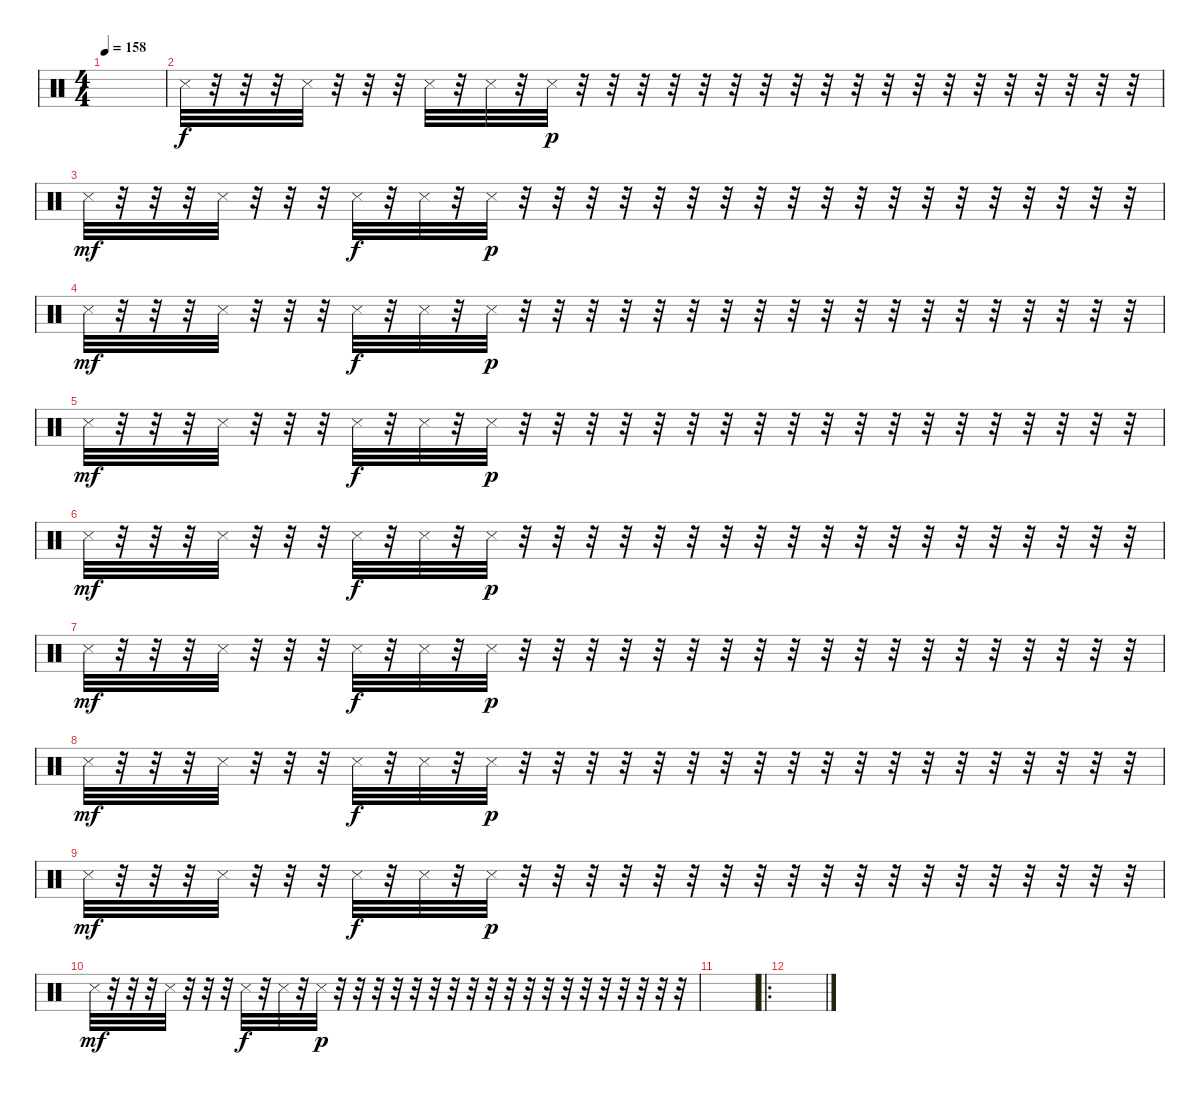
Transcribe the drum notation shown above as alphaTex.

\track ("   " "   ") {instrument percussion}
\staff
\articulation defaults
\ts (4 4)
\tempo 158
\clef neutral
\ks c
|
"Snare (side stick) 3".32 r.32 r.32 r.32 "Snare (side stick) 3".32 r.32 r.32 r.32 "Snare (side stick) 3".32{dy f} r.32 "Snare (side stick) 3".32 r.32 "Snare (side stick) 3".32{dy p} r.32 r.32 r.32 r.32 r.32 r.32 r.32 r.32 r.32 r.32 r.32 r.32 r.32 r.32 r.32 r.32 r.32 r.32 r.32 |
"Snare (side stick) 3".32{dy mf} r.32 r.32 r.32 "Snare (side stick) 3".32 r.32 r.32 r.32 "Snare (side stick) 3".32{dy f} r.32 "Snare (side stick) 3".32 r.32 "Snare (side stick) 3".32{dy p} r.32 r.32 r.32 r.32 r.32 r.32 r.32 r.32 r.32 r.32 r.32 r.32 r.32 r.32 r.32 r.32 r.32 r.32 r.32 |
"Snare (side stick) 3".32{dy mf} r.32 r.32 r.32 "Snare (side stick) 3".32 r.32 r.32 r.32 "Snare (side stick) 3".32{dy f} r.32 "Snare (side stick) 3".32 r.32 "Snare (side stick) 3".32{dy p} r.32 r.32 r.32 r.32 r.32 r.32 r.32 r.32 r.32 r.32 r.32 r.32 r.32 r.32 r.32 r.32 r.32 r.32 r.32 |
"Snare (side stick) 3".32{dy mf} r.32 r.32 r.32 "Snare (side stick) 3".32 r.32 r.32 r.32 "Snare (side stick) 3".32{dy f} r.32 "Snare (side stick) 3".32 r.32 "Snare (side stick) 3".32{dy p} r.32 r.32 r.32 r.32 r.32 r.32 r.32 r.32 r.32 r.32 r.32 r.32 r.32 r.32 r.32 r.32 r.32 r.32 r.32 |
"Snare (side stick) 3".32{dy mf} r.32 r.32 r.32 "Snare (side stick) 3".32 r.32 r.32 r.32 "Snare (side stick) 3".32{dy f} r.32 "Snare (side stick) 3".32 r.32 "Snare (side stick) 3".32{dy p} r.32 r.32 r.32 r.32 r.32 r.32 r.32 r.32 r.32 r.32 r.32 r.32 r.32 r.32 r.32 r.32 r.32 r.32 r.32 |
"Snare (side stick) 3".32{dy mf} r.32 r.32 r.32 "Snare (side stick) 3".32 r.32 r.32 r.32 "Snare (side stick) 3".32{dy f} r.32 "Snare (side stick) 3".32 r.32 "Snare (side stick) 3".32{dy p} r.32 r.32 r.32 r.32 r.32 r.32 r.32 r.32 r.32 r.32 r.32 r.32 r.32 r.32 r.32 r.32 r.32 r.32 r.32 |
"Snare (side stick) 3".32{dy mf} r.32 r.32 r.32 "Snare (side stick) 3".32 r.32 r.32 r.32 "Snare (side stick) 3".32{dy f} r.32 "Snare (side stick) 3".32 r.32 "Snare (side stick) 3".32{dy p} r.32 r.32 r.32 r.32 r.32 r.32 r.32 r.32 r.32 r.32 r.32 r.32 r.32 r.32 r.32 r.32 r.32 r.32 r.32 |
"Snare (side stick) 3".32{dy mf} r.32 r.32 r.32 "Snare (side stick) 3".32 r.32 r.32 r.32 "Snare (side stick) 3".32{dy f} r.32 "Snare (side stick) 3".32 r.32 "Snare (side stick) 3".32{dy p} r.32 r.32 r.32 r.32 r.32 r.32 r.32 r.32 r.32 r.32 r.32 r.32 r.32 r.32 r.32 r.32 r.32 r.32 r.32 |
"Snare (side stick) 3".32{dy mf} r.32 r.32 r.32 "Snare (side stick) 3".32 r.32 r.32 r.32 "Snare (side stick) 3".32{dy f} r.32 "Snare (side stick) 3".32 r.32 "Snare (side stick) 3".32{dy p} r.32 r.32 r.32 r.32 r.32 r.32 r.32 r.32 r.32 r.32 r.32 r.32 r.32 r.32 r.32 r.32 r.32 r.32 r.32 |
|
\ro
